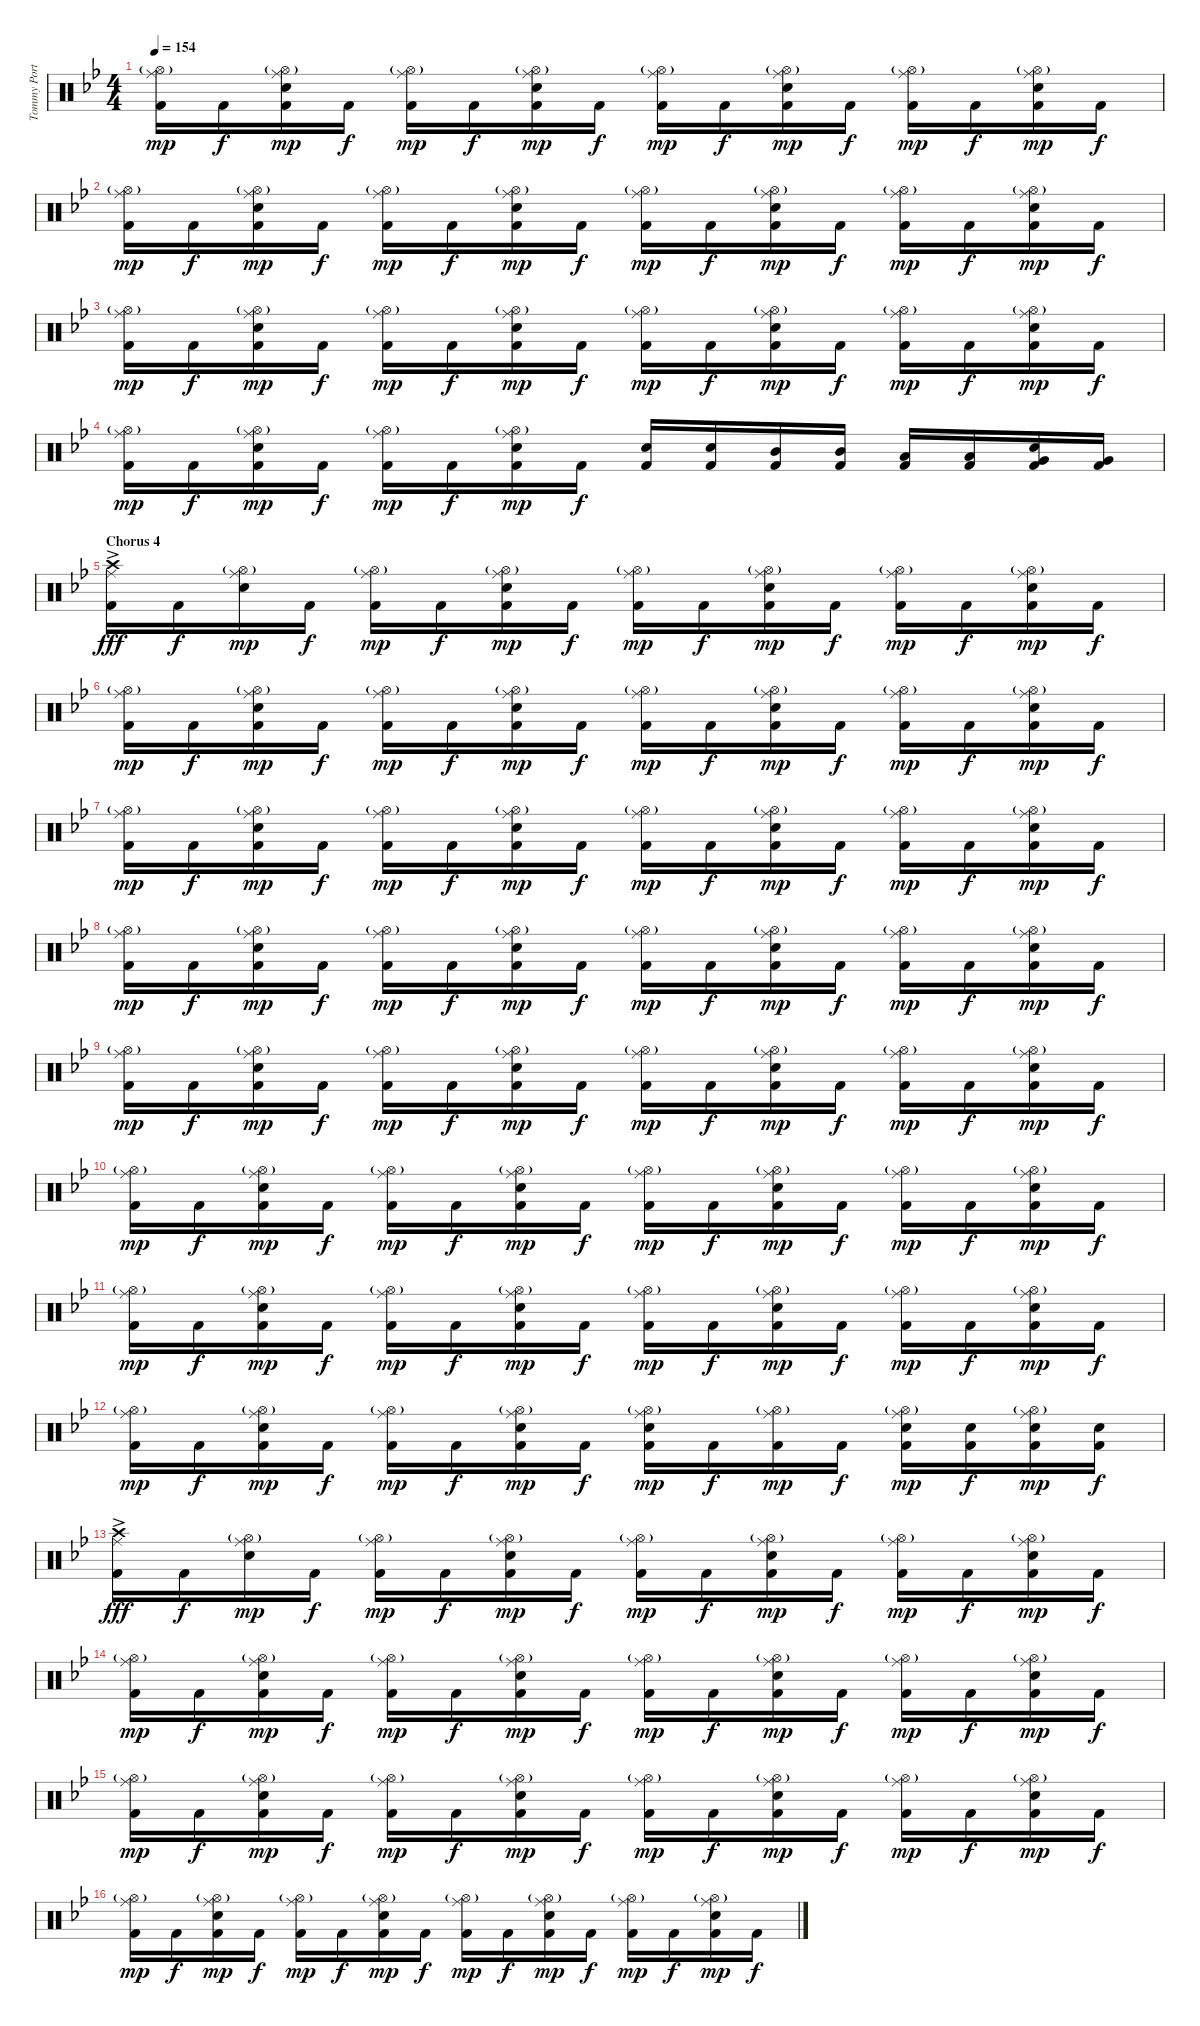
\track ("Tommy Portimo" "Tommy Port") {instrument percussion}
\staff {score}
\articulation defaults
\ts (4 4)
\tempo 154
\clef neutral
\ks gminor
("Hi-Hat (open)"{g} "Ride (middle)" "Kick (hit) 2").16{dy mp} "Kick (hit) 2".16{dy f} ("Hi-Hat (open)"{g} "Ride (middle)" "Electric Snare (hit)" "Kick (hit) 2").16{dy mp} "Kick (hit) 2".16{dy f} ("Hi-Hat (open)"{g} "Ride (middle)" "Kick (hit) 2").16{dy mp} "Kick (hit) 2".16{dy f} ("Hi-Hat (open)"{g} "Ride (middle)" "Electric Snare (hit)" "Kick (hit) 2").16{dy mp} "Kick (hit) 2".16{dy f} ("Hi-Hat (open)"{g} "Ride (middle)" "Kick (hit) 2").16{dy mp} "Kick (hit) 2".16{dy f} ("Hi-Hat (open)"{g} "Ride (middle)" "Electric Snare (hit)" "Kick (hit) 2").16{dy mp} "Kick (hit) 2".16{dy f} ("Hi-Hat (open)"{g} "Ride (middle)" "Kick (hit) 2").16{dy mp} "Kick (hit) 2".16{dy f} ("Hi-Hat (open)"{g} "Ride (middle)" "Electric Snare (hit)" "Kick (hit) 2").16{dy mp} "Kick (hit) 2".16{dy f} |
("Hi-Hat (open)"{g} "Ride (middle)" "Kick (hit) 2").16{dy mp} "Kick (hit) 2".16{dy f} ("Hi-Hat (open)"{g} "Ride (middle)" "Electric Snare (hit)" "Kick (hit) 2").16{dy mp} "Kick (hit) 2".16{dy f} ("Hi-Hat (open)"{g} "Ride (middle)" "Kick (hit) 2").16{dy mp} "Kick (hit) 2".16{dy f} ("Hi-Hat (open)"{g} "Ride (middle)" "Electric Snare (hit)" "Kick (hit) 2").16{dy mp} "Kick (hit) 2".16{dy f} ("Hi-Hat (open)"{g} "Ride (middle)" "Kick (hit) 2").16{dy mp} "Kick (hit) 2".16{dy f} ("Hi-Hat (open)"{g} "Ride (middle)" "Electric Snare (hit)" "Kick (hit) 2").16{dy mp} "Kick (hit) 2".16{dy f} ("Hi-Hat (open)"{g} "Ride (middle)" "Kick (hit) 2").16{dy mp} "Kick (hit) 2".16{dy f} ("Hi-Hat (open)"{g} "Ride (middle)" "Electric Snare (hit)" "Kick (hit) 2").16{dy mp} "Kick (hit) 2".16{dy f} |
("Hi-Hat (open)"{g} "Ride (middle)" "Kick (hit) 2").16{dy mp} "Kick (hit) 2".16{dy f} ("Hi-Hat (open)"{g} "Ride (middle)" "Electric Snare (hit)" "Kick (hit) 2").16{dy mp} "Kick (hit) 2".16{dy f} ("Hi-Hat (open)"{g} "Ride (middle)" "Kick (hit) 2").16{dy mp} "Kick (hit) 2".16{dy f} ("Hi-Hat (open)"{g} "Ride (middle)" "Electric Snare (hit)" "Kick (hit) 2").16{dy mp} "Kick (hit) 2".16{dy f} ("Hi-Hat (open)"{g} "Ride (middle)" "Kick (hit) 2").16{dy mp} "Kick (hit) 2".16{dy f} ("Hi-Hat (open)"{g} "Ride (middle)" "Electric Snare (hit)" "Kick (hit) 2").16{dy mp} "Kick (hit) 2".16{dy f} ("Hi-Hat (open)"{g} "Ride (middle)" "Kick (hit) 2").16{dy mp} "Kick (hit) 2".16{dy f} ("Hi-Hat (open)"{g} "Ride (middle)" "Electric Snare (hit)" "Kick (hit) 2").16{dy mp} "Kick (hit) 2".16{dy f} |
("Hi-Hat (open)"{g} "Ride (middle)" "Kick (hit) 2").16{dy mp} "Kick (hit) 2".16{dy f} ("Hi-Hat (open)"{g} "Ride (middle)" "Electric Snare (hit)" "Kick (hit) 2").16{dy mp} "Kick (hit) 2".16{dy f} ("Hi-Hat (open)"{g} "Ride (middle)" "Kick (hit) 2").16{dy mp} "Kick (hit) 2".16{dy f} ("Hi-Hat (open)"{g} "Ride (middle)" "Electric Snare (hit)" "Kick (hit) 2").16{dy mp} "Kick (hit) 2".16{dy f} ("Electric Snare (hit)" "Kick (hit) 2").16 ("Electric Snare (hit)" "Kick (hit) 2").16 ("Mid Tom (hit)" "Kick (hit) 2").16 ("Mid Tom (hit)" "Kick (hit) 2").16 ("Low Tom (hit)" "Kick (hit) 2").16 ("Low Tom (hit)" "Kick (hit) 2").16 ("Very Low Tom (hit)" "Electric Snare (hit)" "Kick (hit) 2").16 ("Very Low Tom (hit)" "Kick (hit) 2").16 |
\section ("" "Chorus 4")
("Crash high (hit)"{ac} "Ride (middle)" "Kick (hit) 2").16{dy fff} "Kick (hit) 2".16{dy f} ("Hi-Hat (open)"{g} "Ride (middle)" "Electric Snare (hit)").16{dy mp} "Kick (hit) 2".16{dy f} ("Hi-Hat (open)"{g} "Ride (middle)" "Kick (hit) 2").16{dy mp} "Kick (hit) 2".16{dy f} ("Hi-Hat (open)"{g} "Ride (middle)" "Electric Snare (hit)" "Kick (hit) 2").16{dy mp} "Kick (hit) 2".16{dy f} ("Hi-Hat (open)"{g} "Ride (middle)" "Kick (hit) 2").16{dy mp} "Kick (hit) 2".16{dy f} ("Hi-Hat (open)"{g} "Ride (middle)" "Electric Snare (hit)" "Kick (hit) 2").16{dy mp} "Kick (hit) 2".16{dy f} ("Hi-Hat (open)"{g} "Ride (middle)" "Kick (hit) 2").16{dy mp} "Kick (hit) 2".16{dy f} ("Hi-Hat (open)"{g} "Ride (middle)" "Electric Snare (hit)" "Kick (hit) 2").16{dy mp} "Kick (hit) 2".16{dy f} |
("Hi-Hat (open)"{g} "Ride (middle)" "Kick (hit) 2").16{dy mp} "Kick (hit) 2".16{dy f} ("Hi-Hat (open)"{g} "Ride (middle)" "Electric Snare (hit)" "Kick (hit) 2").16{dy mp} "Kick (hit) 2".16{dy f} ("Hi-Hat (open)"{g} "Ride (middle)" "Kick (hit) 2").16{dy mp} "Kick (hit) 2".16{dy f} ("Hi-Hat (open)"{g} "Ride (middle)" "Electric Snare (hit)" "Kick (hit) 2").16{dy mp} "Kick (hit) 2".16{dy f} ("Hi-Hat (open)"{g} "Ride (middle)" "Kick (hit) 2").16{dy mp} "Kick (hit) 2".16{dy f} ("Hi-Hat (open)"{g} "Ride (middle)" "Electric Snare (hit)" "Kick (hit) 2").16{dy mp} "Kick (hit) 2".16{dy f} ("Hi-Hat (open)"{g} "Ride (middle)" "Kick (hit) 2").16{dy mp} "Kick (hit) 2".16{dy f} ("Hi-Hat (open)"{g} "Ride (middle)" "Electric Snare (hit)" "Kick (hit) 2").16{dy mp} "Kick (hit) 2".16{dy f} |
("Hi-Hat (open)"{g} "Ride (middle)" "Kick (hit) 2").16{dy mp} "Kick (hit) 2".16{dy f} ("Hi-Hat (open)"{g} "Ride (middle)" "Electric Snare (hit)" "Kick (hit) 2").16{dy mp} "Kick (hit) 2".16{dy f} ("Hi-Hat (open)"{g} "Ride (middle)" "Kick (hit) 2").16{dy mp} "Kick (hit) 2".16{dy f} ("Hi-Hat (open)"{g} "Ride (middle)" "Electric Snare (hit)" "Kick (hit) 2").16{dy mp} "Kick (hit) 2".16{dy f} ("Hi-Hat (open)"{g} "Ride (middle)" "Kick (hit) 2").16{dy mp} "Kick (hit) 2".16{dy f} ("Hi-Hat (open)"{g} "Ride (middle)" "Electric Snare (hit)" "Kick (hit) 2").16{dy mp} "Kick (hit) 2".16{dy f} ("Hi-Hat (open)"{g} "Ride (middle)" "Kick (hit) 2").16{dy mp} "Kick (hit) 2".16{dy f} ("Hi-Hat (open)"{g} "Ride (middle)" "Electric Snare (hit)" "Kick (hit) 2").16{dy mp} "Kick (hit) 2".16{dy f} |
("Hi-Hat (open)"{g} "Ride (middle)" "Kick (hit) 2").16{dy mp} "Kick (hit) 2".16{dy f} ("Hi-Hat (open)"{g} "Ride (middle)" "Electric Snare (hit)" "Kick (hit) 2").16{dy mp} "Kick (hit) 2".16{dy f} ("Hi-Hat (open)"{g} "Ride (middle)" "Kick (hit) 2").16{dy mp} "Kick (hit) 2".16{dy f} ("Hi-Hat (open)"{g} "Ride (middle)" "Electric Snare (hit)" "Kick (hit) 2").16{dy mp} "Kick (hit) 2".16{dy f} ("Hi-Hat (open)"{g} "Ride (middle)" "Kick (hit) 2").16{dy mp} "Kick (hit) 2".16{dy f} ("Hi-Hat (open)"{g} "Ride (middle)" "Electric Snare (hit)" "Kick (hit) 2").16{dy mp} "Kick (hit) 2".16{dy f} ("Hi-Hat (open)"{g} "Ride (middle)" "Kick (hit) 2").16{dy mp} "Kick (hit) 2".16{dy f} ("Hi-Hat (open)"{g} "Ride (middle)" "Electric Snare (hit)" "Kick (hit) 2").16{dy mp} "Kick (hit) 2".16{dy f} |
("Hi-Hat (open)"{g} "Ride (middle)" "Kick (hit) 2").16{dy mp} "Kick (hit) 2".16{dy f} ("Hi-Hat (open)"{g} "Ride (middle)" "Electric Snare (hit)" "Kick (hit) 2").16{dy mp} "Kick (hit) 2".16{dy f} ("Hi-Hat (open)"{g} "Ride (middle)" "Kick (hit) 2").16{dy mp} "Kick (hit) 2".16{dy f} ("Hi-Hat (open)"{g} "Ride (middle)" "Electric Snare (hit)" "Kick (hit) 2").16{dy mp} "Kick (hit) 2".16{dy f} ("Hi-Hat (open)"{g} "Ride (middle)" "Kick (hit) 2").16{dy mp} "Kick (hit) 2".16{dy f} ("Hi-Hat (open)"{g} "Ride (middle)" "Electric Snare (hit)" "Kick (hit) 2").16{dy mp} "Kick (hit) 2".16{dy f} ("Hi-Hat (open)"{g} "Ride (middle)" "Kick (hit) 2").16{dy mp} "Kick (hit) 2".16{dy f} ("Hi-Hat (open)"{g} "Ride (middle)" "Electric Snare (hit)" "Kick (hit) 2").16{dy mp} "Kick (hit) 2".16{dy f} |
("Hi-Hat (open)"{g} "Ride (middle)" "Kick (hit) 2").16{dy mp} "Kick (hit) 2".16{dy f} ("Hi-Hat (open)"{g} "Ride (middle)" "Electric Snare (hit)" "Kick (hit) 2").16{dy mp} "Kick (hit) 2".16{dy f} ("Hi-Hat (open)"{g} "Ride (middle)" "Kick (hit) 2").16{dy mp} "Kick (hit) 2".16{dy f} ("Hi-Hat (open)"{g} "Ride (middle)" "Electric Snare (hit)" "Kick (hit) 2").16{dy mp} "Kick (hit) 2".16{dy f} ("Hi-Hat (open)"{g} "Ride (middle)" "Kick (hit) 2").16{dy mp} "Kick (hit) 2".16{dy f} ("Hi-Hat (open)"{g} "Ride (middle)" "Electric Snare (hit)" "Kick (hit) 2").16{dy mp} "Kick (hit) 2".16{dy f} ("Hi-Hat (open)"{g} "Ride (middle)" "Kick (hit) 2").16{dy mp} "Kick (hit) 2".16{dy f} ("Hi-Hat (open)"{g} "Ride (middle)" "Electric Snare (hit)" "Kick (hit) 2").16{dy mp} "Kick (hit) 2".16{dy f} |
("Hi-Hat (open)"{g} "Ride (middle)" "Kick (hit) 2").16{dy mp} "Kick (hit) 2".16{dy f} ("Hi-Hat (open)"{g} "Ride (middle)" "Electric Snare (hit)" "Kick (hit) 2").16{dy mp} "Kick (hit) 2".16{dy f} ("Hi-Hat (open)"{g} "Ride (middle)" "Kick (hit) 2").16{dy mp} "Kick (hit) 2".16{dy f} ("Hi-Hat (open)"{g} "Ride (middle)" "Electric Snare (hit)" "Kick (hit) 2").16{dy mp} "Kick (hit) 2".16{dy f} ("Hi-Hat (open)"{g} "Ride (middle)" "Kick (hit) 2").16{dy mp} "Kick (hit) 2".16{dy f} ("Hi-Hat (open)"{g} "Ride (middle)" "Electric Snare (hit)" "Kick (hit) 2").16{dy mp} "Kick (hit) 2".16{dy f} ("Hi-Hat (open)"{g} "Ride (middle)" "Kick (hit) 2").16{dy mp} "Kick (hit) 2".16{dy f} ("Hi-Hat (open)"{g} "Ride (middle)" "Electric Snare (hit)" "Kick (hit) 2").16{dy mp} "Kick (hit) 2".16{dy f} |
("Hi-Hat (open)"{g} "Ride (middle)" "Kick (hit) 2").16{dy mp} "Kick (hit) 2".16{dy f} ("Hi-Hat (open)"{g} "Ride (middle)" "Electric Snare (hit)" "Kick (hit) 2").16{dy mp} "Kick (hit) 2".16{dy f} ("Hi-Hat (open)"{g} "Ride (middle)" "Kick (hit) 2").16{dy mp} "Kick (hit) 2".16{dy f} ("Hi-Hat (open)"{g} "Ride (middle)" "Electric Snare (hit)" "Kick (hit) 2").16{dy mp} "Kick (hit) 2".16{dy f} ("Hi-Hat (open)"{g} "Ride (middle)" "Electric Snare (hit)" "Kick (hit) 2").16{dy mp} "Kick (hit) 2".16{dy f} ("Hi-Hat (open)"{g} "Ride (middle)" "Kick (hit) 2").16{dy mp} "Kick (hit) 2".16{dy f} ("Hi-Hat (open)"{g} "Ride (middle)" "Electric Snare (hit)" "Kick (hit) 2").16{dy mp} ("Electric Snare (hit)" "Kick (hit) 2").16{dy f} ("Hi-Hat (open)"{g} "Ride (middle)" "Electric Snare (hit)" "Kick (hit) 2").16{dy mp} ("Electric Snare (hit)" "Kick (hit) 2").16{dy f} |
("Crash high (hit)"{ac} "Ride (middle)" "Kick (hit) 2").16{dy fff} "Kick (hit) 2".16{dy f} ("Hi-Hat (open)"{g} "Ride (middle)" "Electric Snare (hit)").16{dy mp} "Kick (hit) 2".16{dy f} ("Hi-Hat (open)"{g} "Ride (middle)" "Kick (hit) 2").16{dy mp} "Kick (hit) 2".16{dy f} ("Hi-Hat (open)"{g} "Ride (middle)" "Electric Snare (hit)" "Kick (hit) 2").16{dy mp} "Kick (hit) 2".16{dy f} ("Hi-Hat (open)"{g} "Ride (middle)" "Kick (hit) 2").16{dy mp} "Kick (hit) 2".16{dy f} ("Hi-Hat (open)"{g} "Ride (middle)" "Electric Snare (hit)" "Kick (hit) 2").16{dy mp} "Kick (hit) 2".16{dy f} ("Hi-Hat (open)"{g} "Ride (middle)" "Kick (hit) 2").16{dy mp} "Kick (hit) 2".16{dy f} ("Hi-Hat (open)"{g} "Ride (middle)" "Electric Snare (hit)" "Kick (hit) 2").16{dy mp} "Kick (hit) 2".16{dy f} |
("Hi-Hat (open)"{g} "Ride (middle)" "Kick (hit) 2").16{dy mp} "Kick (hit) 2".16{dy f} ("Hi-Hat (open)"{g} "Ride (middle)" "Electric Snare (hit)" "Kick (hit) 2").16{dy mp} "Kick (hit) 2".16{dy f} ("Hi-Hat (open)"{g} "Ride (middle)" "Kick (hit) 2").16{dy mp} "Kick (hit) 2".16{dy f} ("Hi-Hat (open)"{g} "Ride (middle)" "Electric Snare (hit)" "Kick (hit) 2").16{dy mp} "Kick (hit) 2".16{dy f} ("Hi-Hat (open)"{g} "Ride (middle)" "Kick (hit) 2").16{dy mp} "Kick (hit) 2".16{dy f} ("Hi-Hat (open)"{g} "Ride (middle)" "Electric Snare (hit)" "Kick (hit) 2").16{dy mp} "Kick (hit) 2".16{dy f} ("Hi-Hat (open)"{g} "Ride (middle)" "Kick (hit) 2").16{dy mp} "Kick (hit) 2".16{dy f} ("Hi-Hat (open)"{g} "Ride (middle)" "Electric Snare (hit)" "Kick (hit) 2").16{dy mp} "Kick (hit) 2".16{dy f} |
("Hi-Hat (open)"{g} "Ride (middle)" "Kick (hit) 2").16{dy mp} "Kick (hit) 2".16{dy f} ("Hi-Hat (open)"{g} "Ride (middle)" "Electric Snare (hit)" "Kick (hit) 2").16{dy mp} "Kick (hit) 2".16{dy f} ("Hi-Hat (open)"{g} "Ride (middle)" "Kick (hit) 2").16{dy mp} "Kick (hit) 2".16{dy f} ("Hi-Hat (open)"{g} "Ride (middle)" "Electric Snare (hit)" "Kick (hit) 2").16{dy mp} "Kick (hit) 2".16{dy f} ("Hi-Hat (open)"{g} "Ride (middle)" "Kick (hit) 2").16{dy mp} "Kick (hit) 2".16{dy f} ("Hi-Hat (open)"{g} "Ride (middle)" "Electric Snare (hit)" "Kick (hit) 2").16{dy mp} "Kick (hit) 2".16{dy f} ("Hi-Hat (open)"{g} "Ride (middle)" "Kick (hit) 2").16{dy mp} "Kick (hit) 2".16{dy f} ("Hi-Hat (open)"{g} "Ride (middle)" "Electric Snare (hit)" "Kick (hit) 2").16{dy mp} "Kick (hit) 2".16{dy f} |
("Hi-Hat (open)"{g} "Ride (middle)" "Kick (hit) 2").16{dy mp} "Kick (hit) 2".16{dy f} ("Hi-Hat (open)"{g} "Ride (middle)" "Electric Snare (hit)" "Kick (hit) 2").16{dy mp} "Kick (hit) 2".16{dy f} ("Hi-Hat (open)"{g} "Ride (middle)" "Kick (hit) 2").16{dy mp} "Kick (hit) 2".16{dy f} ("Hi-Hat (open)"{g} "Ride (middle)" "Electric Snare (hit)" "Kick (hit) 2").16{dy mp} "Kick (hit) 2".16{dy f} ("Hi-Hat (open)"{g} "Ride (middle)" "Kick (hit) 2").16{dy mp} "Kick (hit) 2".16{dy f} ("Hi-Hat (open)"{g} "Ride (middle)" "Electric Snare (hit)" "Kick (hit) 2").16{dy mp} "Kick (hit) 2".16{dy f} ("Hi-Hat (open)"{g} "Ride (middle)" "Kick (hit) 2").16{dy mp} "Kick (hit) 2".16{dy f} ("Hi-Hat (open)"{g} "Ride (middle)" "Electric Snare (hit)" "Kick (hit) 2").16{dy mp} "Kick (hit) 2".16{dy f}
